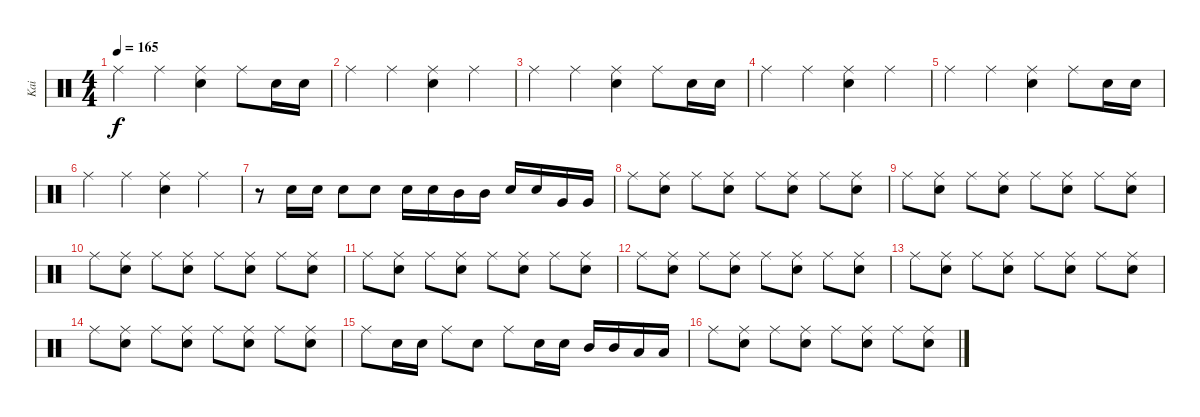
\track ("Kai" "Kai") {instrument percussion}
\staff {score}
\articulation defaults
\ts (4 4)
\tempo 165
\clef neutral
\ks c "Ride (middle)".4{dy f} "Ride (middle)".4
("Ride (middle)" "Snare (hit) 2").4 "Ride (middle)".8 "Snare (hit) 2".16 "Snare (hit) 2".16 |
"Ride (middle)".4 "Ride (middle)".4 ("Ride (middle)" "Snare (hit) 2").4 "Ride (middle)".4 |
"Ride (middle)".4 "Ride (middle)".4 ("Ride (middle)" "Snare (hit) 2").4 "Ride (middle)".8 "Snare (hit) 2".16 "Snare (hit) 2".16 |
"Ride (middle)".4 "Ride (middle)".4 ("Ride (middle)" "Snare (hit) 2").4 "Ride (middle)".4 |
"Ride (middle)".4 "Ride (middle)".4 ("Ride (middle)" "Snare (hit) 2").4 "Ride (middle)".8 "Snare (hit) 2".16 "Snare (hit) 2".16 |
"Ride (middle)".4 "Ride (middle)".4 ("Ride (middle)" "Snare (hit) 2").4 "Ride (middle)".4 |
r.8 "Snare (hit) 2".16 "Snare (hit) 2".16 "Snare (hit) 2".8 "Snare (hit) 2".8 "Snare (hit) 2".16 "Snare (hit) 2".16 "Mid Tom (hit)".16 "Mid Tom (hit)".16 "Snare (hit) 2".16 "Snare (hit) 2".16 "Very Low Tom (hit)".16 "Very Low Tom (hit)".16 |
"Ride (middle)".8 ("Ride (middle)" "Snare (hit) 2").8 "Ride (middle)".8 ("Ride (middle)" "Snare (hit) 2").8 "Ride (middle)".8 ("Ride (middle)" "Snare (hit) 2").8 "Ride (middle)".8 ("Ride (middle)" "Snare (hit) 2").8 |
"Ride (middle)".8 ("Ride (middle)" "Snare (hit) 2").8 "Ride (middle)".8 ("Ride (middle)" "Snare (hit) 2").8 "Ride (middle)".8 ("Ride (middle)" "Snare (hit) 2").8 "Ride (middle)".8 ("Ride (middle)" "Snare (hit) 2").8 |
"Ride (middle)".8 ("Ride (middle)" "Snare (hit) 2").8 "Ride (middle)".8 ("Ride (middle)" "Snare (hit) 2").8 "Ride (middle)".8 ("Ride (middle)" "Snare (hit) 2").8 "Ride (middle)".8 ("Ride (middle)" "Snare (hit) 2").8 |
"Ride (middle)".8 ("Ride (middle)" "Snare (hit) 2").8 "Ride (middle)".8 ("Ride (middle)" "Snare (hit) 2").8 "Ride (middle)".8 ("Ride (middle)" "Snare (hit) 2").8 "Ride (middle)".8 ("Ride (middle)" "Snare (hit) 2").8 |
"Ride (middle)".8 ("Ride (middle)" "Snare (hit) 2").8 "Ride (middle)".8 ("Ride (middle)" "Snare (hit) 2").8 "Ride (middle)".8 ("Ride (middle)" "Snare (hit) 2").8 "Ride (middle)".8 ("Ride (middle)" "Snare (hit) 2").8 |
"Ride (middle)".8 ("Ride (middle)" "Snare (hit) 2").8 "Ride (middle)".8 ("Ride (middle)" "Snare (hit) 2").8 "Ride (middle)".8 ("Ride (middle)" "Snare (hit) 2").8 "Ride (middle)".8 ("Ride (middle)" "Snare (hit) 2").8 |
"Ride (middle)".8 ("Ride (middle)" "Snare (hit) 2").8 "Ride (middle)".8 ("Ride (middle)" "Snare (hit) 2").8 "Ride (middle)".8 ("Ride (middle)" "Snare (hit) 2").8 "Ride (middle)".8 ("Ride (middle)" "Snare (hit) 2").8 |
"Ride (middle)".8 "Snare (hit) 2".16 "Snare (hit) 2".16 "Ride (middle)".8 "Snare (hit) 2".8 "Ride (middle)".8 "Snare (hit) 2".16 "Snare (hit) 2".16 "Mid Tom (hit)".16 "Mid Tom (hit)".16 "Low Tom (hit)".16 "Low Tom (hit)".16 |
"Ride (middle)".8 ("Ride (middle)" "Snare (hit) 2").8 "Ride (middle)".8 ("Ride (middle)" "Snare (hit) 2").8 "Ride (middle)".8 ("Ride (middle)" "Snare (hit) 2").8 "Ride (middle)".8 ("Ride (middle)" "Snare (hit) 2").8
